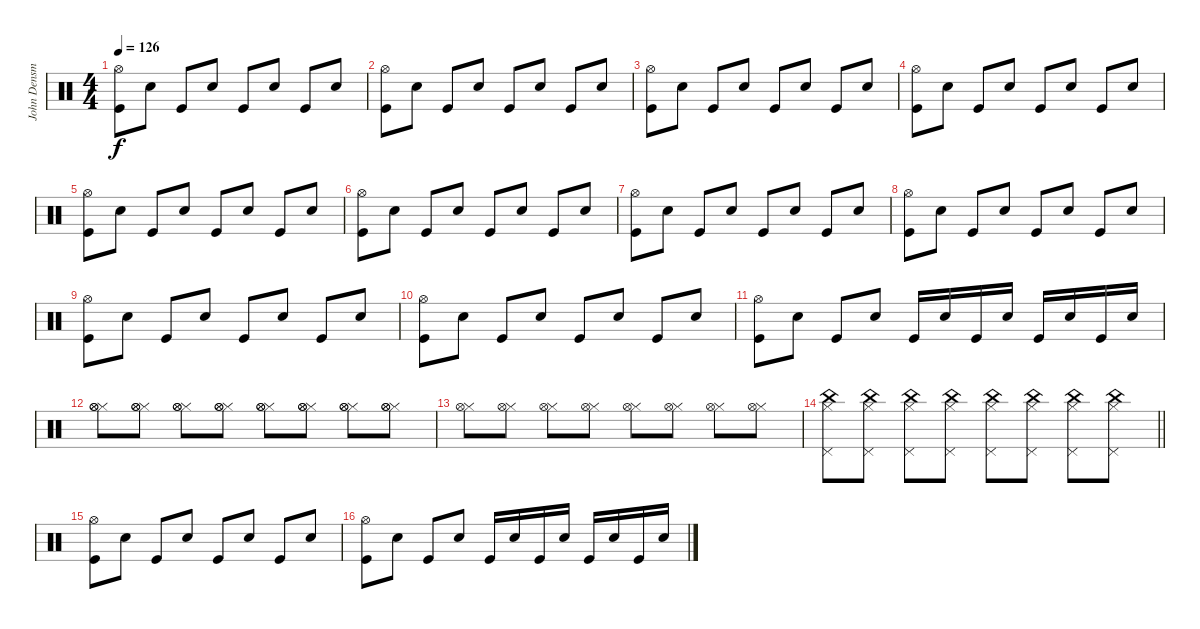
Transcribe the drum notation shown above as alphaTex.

\track ("John Densmore" "John Densm") {instrument percussion}
\staff {score}
\articulation defaults
\ts (4 4)
\tempo 126
\clef neutral
\ks c
("Kick (hit)" "Hi-Hat (open)").8{dy f} "Snare (hit) 2".8 "Kick (hit)".8 "Snare (hit) 2".8 "Kick (hit)".8 "Snare (hit) 2".8 "Kick (hit)".8 "Snare (hit) 2".8 |
("Kick (hit)" "Hi-Hat (open)").8 "Snare (hit) 2".8 "Kick (hit)".8 "Snare (hit) 2".8 "Kick (hit)".8 "Snare (hit) 2".8 "Kick (hit)".8 "Snare (hit) 2".8 |
("Kick (hit)" "Hi-Hat (open)").8 "Snare (hit) 2".8 "Kick (hit)".8 "Snare (hit) 2".8 "Kick (hit)".8 "Snare (hit) 2".8 "Kick (hit)".8 "Snare (hit) 2".8 |
("Kick (hit)" "Hi-Hat (open)").8 "Snare (hit) 2".8 "Kick (hit)".8 "Snare (hit) 2".8 "Kick (hit)".8 "Snare (hit) 2".8 "Kick (hit)".8 "Snare (hit) 2".8 |
("Kick (hit)" "Hi-Hat (open)").8 "Snare (hit) 2".8 "Kick (hit)".8 "Snare (hit) 2".8 "Kick (hit)".8 "Snare (hit) 2".8 "Kick (hit)".8 "Snare (hit) 2".8 |
("Kick (hit)" "Hi-Hat (open)").8 "Snare (hit) 2".8 "Kick (hit)".8 "Snare (hit) 2".8 "Kick (hit)".8 "Snare (hit) 2".8 "Kick (hit)".8 "Snare (hit) 2".8 |
("Kick (hit)" "Hi-Hat (open)").8 "Snare (hit) 2".8 "Kick (hit)".8 "Snare (hit) 2".8 "Kick (hit)".8 "Snare (hit) 2".8 "Kick (hit)".8 "Snare (hit) 2".8 |
("Kick (hit)" "Hi-Hat (open)").8 "Snare (hit) 2".8 "Kick (hit)".8 "Snare (hit) 2".8 "Kick (hit)".8 "Snare (hit) 2".8 "Kick (hit)".8 "Snare (hit) 2".8 |
("Kick (hit)" "Hi-Hat (open)").8 "Snare (hit) 2".8 "Kick (hit)".8 "Snare (hit) 2".8 "Kick (hit)".8 "Snare (hit) 2".8 "Kick (hit)".8 "Snare (hit) 2".8 |
("Kick (hit)" "Hi-Hat (open)").8 "Snare (hit) 2".8 "Kick (hit)".8 "Snare (hit) 2".8 "Kick (hit)".8 "Snare (hit) 2".8 "Kick (hit)".8 "Snare (hit) 2".8 |
("Kick (hit)" "Hi-Hat (open)").8 "Snare (hit) 2".8 "Kick (hit)".8 "Snare (hit) 2".8 "Kick (hit)".16 "Snare (hit) 2".16 "Kick (hit)".16 "Snare (hit) 2".16 "Kick (hit)".16 "Snare (hit) 2".16 "Kick (hit)".16 "Snare (hit) 2".16 |
("Hi-Hat (closed)" "Hi-Hat (open)" "Hi-Hat (open)").8 ("Hi-Hat (closed)" "Hi-Hat (open)" "Hi-Hat (open)").8 ("Hi-Hat (closed)" "Hi-Hat (open)" "Hi-Hat (open)").8 ("Hi-Hat (closed)" "Hi-Hat (open)" "Hi-Hat (open)").8 ("Hi-Hat (closed)" "Hi-Hat (open)" "Hi-Hat (open)").8 ("Hi-Hat (closed)" "Hi-Hat (open)" "Hi-Hat (open)").8 ("Hi-Hat (closed)" "Hi-Hat (open)" "Hi-Hat (open)").8 ("Hi-Hat (closed)" "Hi-Hat (open)" "Hi-Hat (open)").8 |
("Hi-Hat (closed)" "Hi-Hat (open)").8 ("Hi-Hat (closed)" "Hi-Hat (open)").8 ("Hi-Hat (closed)" "Hi-Hat (open)").8 ("Hi-Hat (closed)" "Hi-Hat (open)").8 ("Hi-Hat (closed)" "Hi-Hat (open)").8 ("Hi-Hat (closed)" "Hi-Hat (open)").8 ("Hi-Hat (closed)" "Hi-Hat (open)").8 ("Hi-Hat (closed)" "Hi-Hat (open)").8 |
\barLineRight lightlight
("Pedal Hi-Hat (hit)" "Hi-Hat (closed)" "China (hit)").8 ("Pedal Hi-Hat (hit)" "Hi-Hat (closed)" "China (hit)").8 ("Pedal Hi-Hat (hit)" "Hi-Hat (closed)" "China (hit)").8 ("Pedal Hi-Hat (hit)" "Hi-Hat (closed)" "China (hit)").8 ("Pedal Hi-Hat (hit)" "Hi-Hat (closed)" "China (hit)").8 ("Pedal Hi-Hat (hit)" "Hi-Hat (closed)" "China (hit)").8 ("Pedal Hi-Hat (hit)" "Hi-Hat (closed)" "China (hit)").8 ("Pedal Hi-Hat (hit)" "Hi-Hat (closed)" "China (hit)").8 |
("Kick (hit)" "Hi-Hat (open)").8 "Snare (hit) 2".8 "Kick (hit)".8 "Snare (hit) 2".8 "Kick (hit)".8 "Snare (hit) 2".8 "Kick (hit)".8 "Snare (hit) 2".8 |
("Kick (hit)" "Hi-Hat (open)").8 "Snare (hit) 2".8 "Kick (hit)".8 "Snare (hit) 2".8 "Kick (hit)".16 "Snare (hit) 2".16 "Kick (hit)".16 "Snare (hit) 2".16 "Kick (hit)".16 "Snare (hit) 2".16 "Kick (hit)".16 "Snare (hit) 2".16
